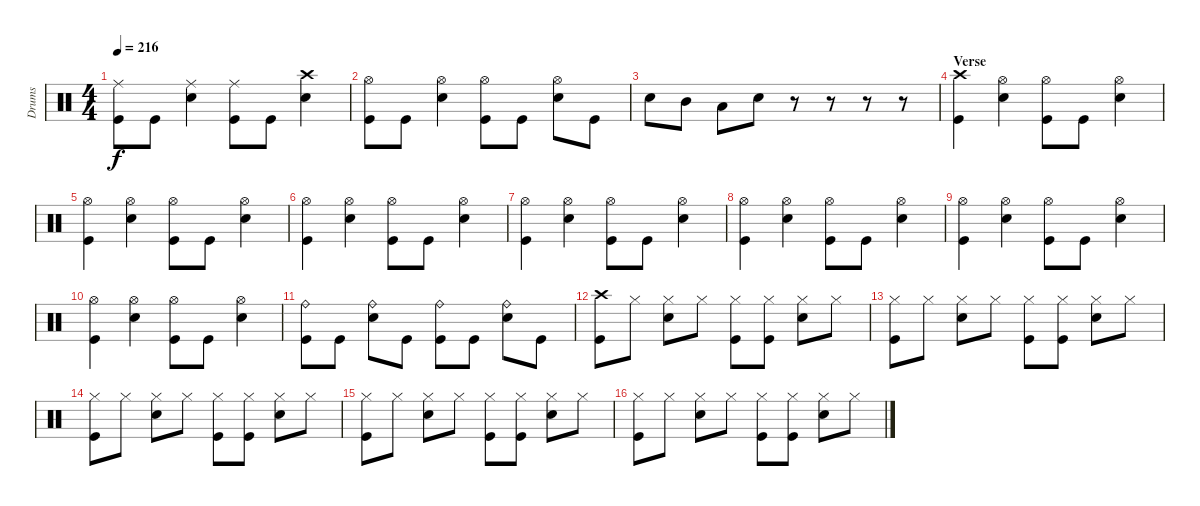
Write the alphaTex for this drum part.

\track ("Drums" "Drums") {instrument percussion}
\staff {score}
\articulation defaults
\ts (4 4)
\tempo 216
\clef neutral
\ks c
("Ride (middle)" "Kick (hit)").8{dy f} "Kick (hit)".8 ("Ride (middle)" "Snare (hit) 2").4 ("Ride (middle)" "Kick (hit)").8 "Kick (hit)".8 ("Crash high (hit)" "Snare (hit) 2").4 |
("Hi-Hat (open)" "Kick (hit)").8 "Kick (hit)".8 ("Hi-Hat (open)" "Snare (hit) 2").4 ("Hi-Hat (open)" "Kick (hit)").8 "Kick (hit)".8 ("Hi-Hat (open)" "Snare (hit) 2").8 "Kick (hit)".8 |
"Snare (hit) 2".8 "Mid Tom (hit)".8 "Low Tom (hit)".8 "Snare (hit) 2".8 r.8 r.8 r.8 r.8 |
\section ("" "Verse")
("Crash high (hit)" "Kick (hit)").4 ("Hi-Hat (open)" "Snare (hit) 2").4 ("Hi-Hat (open)" "Kick (hit)").8 "Kick (hit)".8 ("Hi-Hat (open)" "Snare (hit) 2").4 |
("Hi-Hat (open)" "Kick (hit)").4 ("Hi-Hat (open)" "Snare (hit) 2").4 ("Hi-Hat (open)" "Kick (hit)").8 "Kick (hit)".8 ("Hi-Hat (open)" "Snare (hit) 2").4 |
("Hi-Hat (open)" "Kick (hit)").4 ("Hi-Hat (open)" "Snare (hit) 2").4 ("Hi-Hat (open)" "Kick (hit)").8 "Kick (hit)".8 ("Hi-Hat (open)" "Snare (hit) 2").4 |
("Hi-Hat (open)" "Kick (hit)").4 ("Hi-Hat (open)" "Snare (hit) 2").4 ("Hi-Hat (open)" "Kick (hit)").8 "Kick (hit)".8 ("Hi-Hat (open)" "Snare (hit) 2").4 |
("Hi-Hat (open)" "Kick (hit)").4 ("Hi-Hat (open)" "Snare (hit) 2").4 ("Hi-Hat (open)" "Kick (hit)").8 "Kick (hit)".8 ("Hi-Hat (open)" "Snare (hit) 2").4 |
("Hi-Hat (open)" "Kick (hit)").4 ("Hi-Hat (open)" "Snare (hit) 2").4 ("Hi-Hat (open)" "Kick (hit)").8 "Kick (hit)".8 ("Hi-Hat (open)" "Snare (hit) 2").4 |
("Hi-Hat (open)" "Kick (hit)").4 ("Hi-Hat (open)" "Snare (hit) 2").4 ("Hi-Hat (open)" "Kick (hit)").8 "Kick (hit)".8 ("Hi-Hat (open)" "Snare (hit) 2").4 |
("Ride (bell)" "Kick (hit)").8 "Kick (hit)".8 ("Ride (bell)" "Snare (hit) 2").8 "Kick (hit)".8 ("Ride (bell)" "Kick (hit)").8 "Kick (hit)".8 ("Ride (bell)" "Snare (hit) 2").8 "Kick (hit)".8 |
("Crash high (hit)" "Kick (hit)").8 "Hi-Hat (closed)".8 ("Hi-Hat (closed)" "Snare (hit) 2").8 "Hi-Hat (closed)".8 ("Hi-Hat (closed)" "Kick (hit)").8 ("Hi-Hat (closed)" "Kick (hit)").8 ("Hi-Hat (closed)" "Snare (hit) 2").8 "Hi-Hat (closed)".8 |
("Hi-Hat (closed)" "Kick (hit)").8 "Hi-Hat (closed)".8 ("Hi-Hat (closed)" "Snare (hit) 2").8 "Hi-Hat (closed)".8 ("Hi-Hat (closed)" "Kick (hit)").8 ("Hi-Hat (closed)" "Kick (hit)").8 ("Hi-Hat (closed)" "Snare (hit) 2").8 "Hi-Hat (closed)".8 |
("Hi-Hat (closed)" "Kick (hit)").8 "Hi-Hat (closed)".8 ("Hi-Hat (closed)" "Snare (hit) 2").8 "Hi-Hat (closed)".8 ("Hi-Hat (closed)" "Kick (hit)").8 ("Hi-Hat (closed)" "Kick (hit)").8 ("Hi-Hat (closed)" "Snare (hit) 2").8 "Hi-Hat (closed)".8 |
("Hi-Hat (closed)" "Kick (hit)").8 "Hi-Hat (closed)".8 ("Hi-Hat (closed)" "Snare (hit) 2").8 "Hi-Hat (closed)".8 ("Hi-Hat (closed)" "Kick (hit)").8 ("Hi-Hat (closed)" "Kick (hit)").8 ("Hi-Hat (closed)" "Snare (hit) 2").8 "Hi-Hat (closed)".8 |
("Hi-Hat (closed)" "Kick (hit)").8 "Hi-Hat (closed)".8 ("Hi-Hat (closed)" "Snare (hit) 2").8 "Hi-Hat (closed)".8 ("Hi-Hat (closed)" "Kick (hit)").8 ("Hi-Hat (closed)" "Kick (hit)").8 ("Hi-Hat (closed)" "Snare (hit) 2").8 "Hi-Hat (closed)".8
